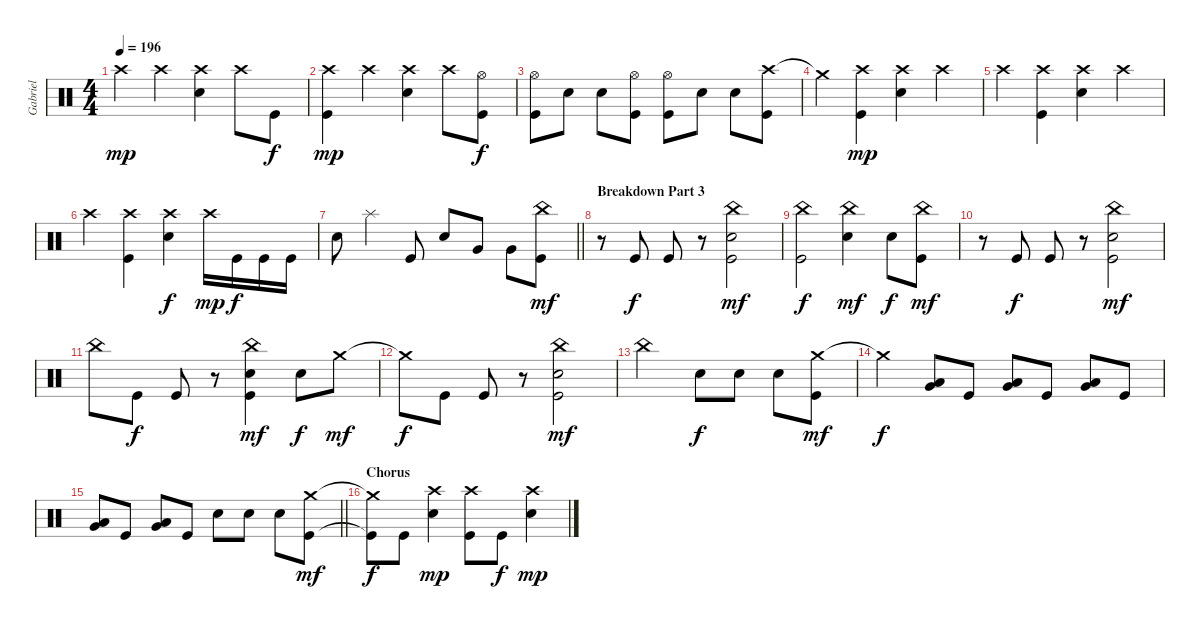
\track ("Gabriel" "Gabriel") {instrument percussion}
\staff {score}
\articulation defaults
\ts (4 4)
\tempo 196
\clef neutral
\ks aminor "Crash high (hit)".4{dy mp} "Crash high (hit)".4
("Crash high (hit)" "Snare (hit) 2").4 "Crash high (hit)".8 "Kick (hit)".8{dy f} |
("Crash high (hit)" "Kick (hit)").4{dy mp} "Crash high (hit)".4 ("Crash high (hit)" "Snare (hit) 2").4 "Crash high (hit)".8 ("Hi-Hat (open)" "Kick (hit)").8{dy f} |
("Hi-Hat (open)" "Kick (hit)").8 "Snare (hit) 2".8 "Snare (hit) 2".8 ("Hi-Hat (open)" "Kick (hit)").8 ("Hi-Hat (open)" "Kick (hit)").8 "Snare (hit) 2".8 "Snare (hit) 2".8 ("Crash high (hit)" "Kick (hit)").8 |
"Crash medium (hit)"{t}.4 ("Crash high (hit)" "Kick (hit)").4{dy mp} ("Crash high (hit)" "Snare (hit) 2").4 "Crash high (hit)".4 |
"Crash high (hit)".4 ("Crash high (hit)" "Kick (hit)").4 ("Crash high (hit)" "Snare (hit) 2").4 "Crash high (hit)".4 |
"Crash high (hit)".4 ("Crash high (hit)" "Kick (hit)").4 ("Crash high (hit)" "Snare (hit) 2").4{dy f} "Crash high (hit)".16{dy mp} "Kick (hit)".16{dy f} "Kick (hit)".16 "Kick (hit)".16 |
\barLineRight lightlight "Snare (hit) 2".8 "Splash (hit)".4 "Kick (hit)".8 "Snare (hit) 2".8 "Very Low Tom (hit)".8 "Very Low Tom (hit)".8
("China (hit)" "Kick (hit)").8{dy mf} |
\section ("" "Breakdown Part 3")
r.8 "Kick (hit)".8{dy f} "Kick (hit)".8 r.8 ("China (hit)" "Snare (hit) 2" "Kick (hit)").2{dy mf} |
("China (hit)" "Kick (hit)").2{dy f} ("China (hit)" "Snare (hit) 2").4{dy mf} "Snare (hit) 2".8{dy f} ("China (hit)" "Kick (hit)").8{dy mf} |
r.8 "Kick (hit)".8{dy f} "Kick (hit)".8 r.8 ("China (hit)" "Snare (hit) 2" "Kick (hit)").2{dy mf} |
"China (hit)".8 "Kick (hit)".8{dy f} "Kick (hit)".8 r.8 ("China (hit)" "Snare (hit) 2" "Kick (hit)").4{dy mf} "Snare (hit) 2".8{dy f} "Crash medium (hit)".8{dy mf} |
"Crash medium (hit)"{t}.8{dy f} "Kick (hit)".8 "Kick (hit)".8 r.8 ("China (hit)" "Snare (hit) 2" "Kick (hit)").2{dy mf} |
"China (hit)".2 "Snare (hit) 2".8{dy f} "Snare (hit) 2".8 "Snare (hit) 2".8 ("Crash medium (hit)" "Kick (hit)").8{dy mf} |
"Crash medium (hit)"{t}.4{dy f} ("Very Low Tom (hit)" "Low Tom (hit)").8 "Kick (hit)".8 ("Very Low Tom (hit)" "Low Tom (hit)").8 "Kick (hit)".8 ("Very Low Tom (hit)" "Low Tom (hit)").8 "Kick (hit)".8 |
\barLineRight lightlight
("Very Low Tom (hit)" "Low Tom (hit)").8 "Kick (hit)".8 ("Very Low Tom (hit)" "Low Tom (hit)").8 "Kick (hit)".8 "Snare (hit) 2".8 "Snare (hit) 2".8 "Snare (hit) 2".8 ("Crash medium (hit)" "Kick (hit)").8{dy mf} |
\section ("" "Chorus")
("Crash medium (hit)"{t} "Kick (hit)"{t}).8{dy f} "Kick (hit)".8 ("Crash high (hit)" "Snare (hit) 2").4{dy mp} ("Crash high (hit)" "Kick (hit)").8 "Kick (hit)".8{dy f} ("Crash high (hit)" "Snare (hit) 2").4{dy mp}
